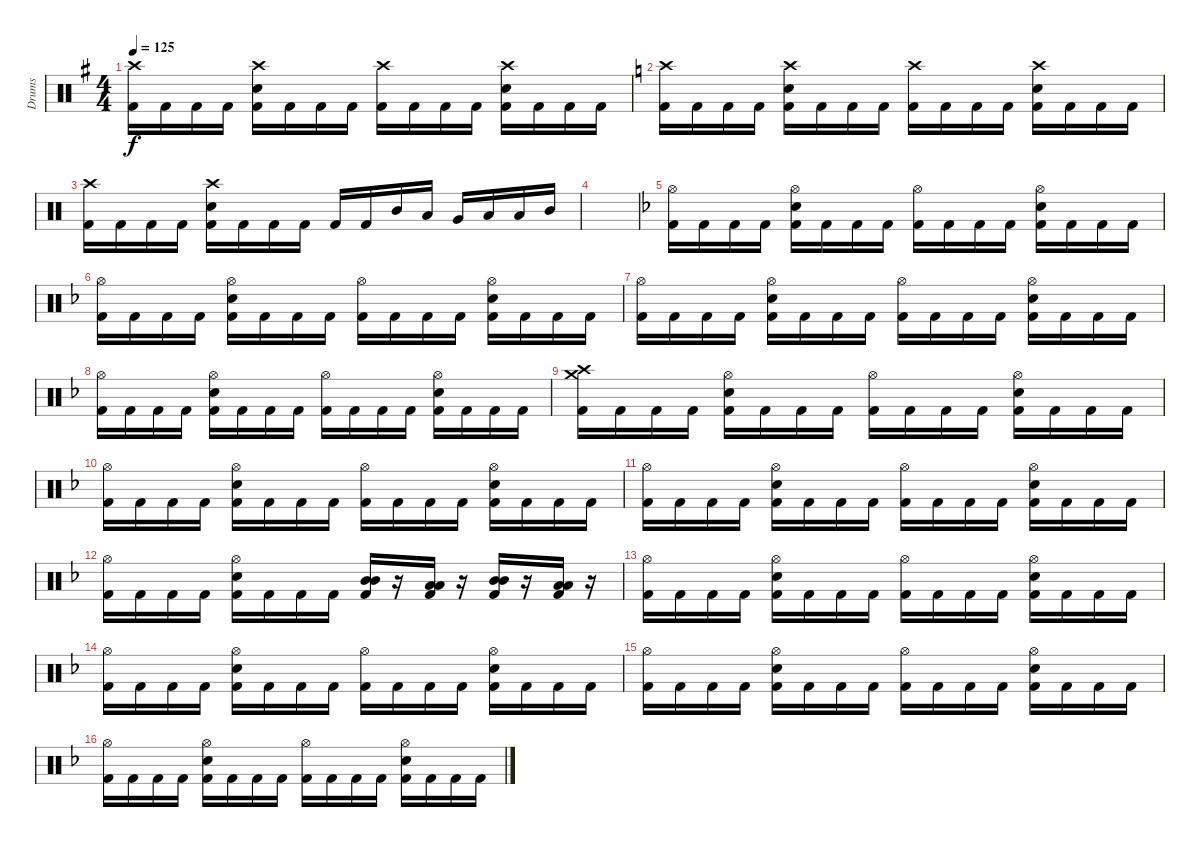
\track ("Drums" "Drums") {instrument percussion}
\staff {score}
\articulation defaults
\ts (4 4)
\tempo 125
\clef neutral
\ks g
("Crash high (hit)" "Kick (hit) 2").16{dy f} "Kick (hit) 2".16 "Kick (hit) 2".16 "Kick (hit) 2".16 ("Crash high (hit)" "Snare (hit) 2" "Kick (hit) 2").16 "Kick (hit) 2".16 "Kick (hit) 2".16 "Kick (hit) 2".16 ("Crash high (hit)" "Kick (hit) 2").16 "Kick (hit) 2".16 "Kick (hit) 2".16 "Kick (hit) 2".16 ("Crash high (hit)" "Snare (hit) 2" "Kick (hit) 2").16 "Kick (hit) 2".16 "Kick (hit) 2".16 "Kick (hit) 2".16 |
\ks c
("Crash high (hit)" "Kick (hit) 2").16 "Kick (hit) 2".16 "Kick (hit) 2".16 "Kick (hit) 2".16 ("Crash high (hit)" "Snare (hit) 2" "Kick (hit) 2").16 "Kick (hit) 2".16 "Kick (hit) 2".16 "Kick (hit) 2".16 ("Crash high (hit)" "Kick (hit) 2").16 "Kick (hit) 2".16 "Kick (hit) 2".16 "Kick (hit) 2".16 ("Crash high (hit)" "Snare (hit) 2" "Kick (hit) 2").16 "Kick (hit) 2".16 "Kick (hit) 2".16 "Kick (hit) 2".16 |
("Crash high (hit)" "Kick (hit) 2").16 "Kick (hit) 2".16 "Kick (hit) 2".16 "Kick (hit) 2".16 ("Crash high (hit)" "Snare (hit) 2" "Kick (hit) 2").16 "Kick (hit) 2".16 "Kick (hit) 2".16 "Kick (hit) 2".16 "Kick (hit) 2".16 "Kick (hit) 2".16 "Mid Tom (hit)".16 "Low Tom (hit)".16 "Very Low Tom (hit)".16 "Low Tom (hit)".16 "Low Tom (hit)".16 "Mid Tom (hit)".16 |
|
\ks f
("Hi-Hat (open)" "Kick (hit) 2").16 "Kick (hit) 2".16 "Kick (hit) 2".16 "Kick (hit) 2".16 ("Hi-Hat (open)" "Snare (hit) 2" "Kick (hit) 2").16 "Kick (hit) 2".16 "Kick (hit) 2".16 "Kick (hit) 2".16 ("Hi-Hat (open)" "Kick (hit) 2").16 "Kick (hit) 2".16 "Kick (hit) 2".16 "Kick (hit) 2".16 ("Hi-Hat (open)" "Snare (hit) 2" "Kick (hit) 2").16 "Kick (hit) 2".16 "Kick (hit) 2".16 "Kick (hit) 2".16 |
("Hi-Hat (open)" "Kick (hit) 2").16 "Kick (hit) 2".16 "Kick (hit) 2".16 "Kick (hit) 2".16 ("Hi-Hat (open)" "Snare (hit) 2" "Kick (hit) 2").16 "Kick (hit) 2".16 "Kick (hit) 2".16 "Kick (hit) 2".16 ("Hi-Hat (open)" "Kick (hit) 2").16 "Kick (hit) 2".16 "Kick (hit) 2".16 "Kick (hit) 2".16 ("Hi-Hat (open)" "Snare (hit) 2" "Kick (hit) 2").16 "Kick (hit) 2".16 "Kick (hit) 2".16 "Kick (hit) 2".16 |
("Hi-Hat (open)" "Kick (hit) 2").16 "Kick (hit) 2".16 "Kick (hit) 2".16 "Kick (hit) 2".16 ("Hi-Hat (open)" "Snare (hit) 2" "Kick (hit) 2").16 "Kick (hit) 2".16 "Kick (hit) 2".16 "Kick (hit) 2".16 ("Hi-Hat (open)" "Kick (hit) 2").16 "Kick (hit) 2".16 "Kick (hit) 2".16 "Kick (hit) 2".16 ("Hi-Hat (open)" "Snare (hit) 2" "Kick (hit) 2").16 "Kick (hit) 2".16 "Kick (hit) 2".16 "Kick (hit) 2".16 |
("Hi-Hat (open)" "Kick (hit) 2").16 "Kick (hit) 2".16 "Kick (hit) 2".16 "Kick (hit) 2".16 ("Hi-Hat (open)" "Snare (hit) 2" "Kick (hit) 2").16 "Kick (hit) 2".16 "Kick (hit) 2".16 "Kick (hit) 2".16 ("Hi-Hat (open)" "Kick (hit) 2").16 "Kick (hit) 2".16 "Kick (hit) 2".16 "Kick (hit) 2".16 ("Hi-Hat (open)" "Snare (hit) 2" "Kick (hit) 2").16 "Kick (hit) 2".16 "Kick (hit) 2".16 "Kick (hit) 2".16 |
("Crash medium (hit)" "Crash high (hit)" "Kick (hit) 2").16 "Kick (hit) 2".16 "Kick (hit) 2".16 "Kick (hit) 2".16 ("Hi-Hat (open)" "Snare (hit) 2" "Kick (hit) 2").16 "Kick (hit) 2".16 "Kick (hit) 2".16 "Kick (hit) 2".16 ("Hi-Hat (open)" "Kick (hit) 2").16 "Kick (hit) 2".16 "Kick (hit) 2".16 "Kick (hit) 2".16 ("Hi-Hat (open)" "Snare (hit) 2" "Kick (hit) 2").16 "Kick (hit) 2".16 "Kick (hit) 2".16 "Kick (hit) 2".16 |
("Hi-Hat (open)" "Kick (hit) 2").16 "Kick (hit) 2".16 "Kick (hit) 2".16 "Kick (hit) 2".16 ("Hi-Hat (open)" "Snare (hit) 2" "Kick (hit) 2").16 "Kick (hit) 2".16 "Kick (hit) 2".16 "Kick (hit) 2".16 ("Hi-Hat (open)" "Kick (hit) 2").16 "Kick (hit) 2".16 "Kick (hit) 2".16 "Kick (hit) 2".16 ("Hi-Hat (open)" "Snare (hit) 2" "Kick (hit) 2").16 "Kick (hit) 2".16 "Kick (hit) 2".16 "Kick (hit) 2".16 |
("Hi-Hat (open)" "Kick (hit) 2").16 "Kick (hit) 2".16 "Kick (hit) 2".16 "Kick (hit) 2".16 ("Hi-Hat (open)" "Snare (hit) 2" "Kick (hit) 2").16 "Kick (hit) 2".16 "Kick (hit) 2".16 "Kick (hit) 2".16 ("Hi-Hat (open)" "Kick (hit) 2").16 "Kick (hit) 2".16 "Kick (hit) 2".16 "Kick (hit) 2".16 ("Hi-Hat (open)" "Snare (hit) 2" "Kick (hit) 2").16 "Kick (hit) 2".16 "Kick (hit) 2".16 "Kick (hit) 2".16 |
("Hi-Hat (open)" "Kick (hit) 2").16 "Kick (hit) 2".16 "Kick (hit) 2".16 "Kick (hit) 2".16 ("Hi-Hat (open)" "Snare (hit) 2" "Kick (hit) 2").16 "Kick (hit) 2".16 "Kick (hit) 2".16 "Kick (hit) 2".16 ("Mid Tom (hit)" "Mid Tom (hit)" "Kick (hit) 2").16 r.16 ("Low Tom (hit)" "Low Tom (hit)" "Kick (hit) 2").16 r.16 ("Mid Tom (hit)" "Mid Tom (hit)" "Kick (hit) 2").16 r.16 ("Low Tom (hit)" "Low Tom (hit)" "Kick (hit) 2").16 r.16 |
("Hi-Hat (open)" "Kick (hit) 2").16 "Kick (hit) 2".16 "Kick (hit) 2".16 "Kick (hit) 2".16 ("Hi-Hat (open)" "Snare (hit) 2" "Kick (hit) 2").16 "Kick (hit) 2".16 "Kick (hit) 2".16 "Kick (hit) 2".16 ("Hi-Hat (open)" "Kick (hit) 2").16 "Kick (hit) 2".16 "Kick (hit) 2".16 "Kick (hit) 2".16 ("Hi-Hat (open)" "Snare (hit) 2" "Kick (hit) 2").16 "Kick (hit) 2".16 "Kick (hit) 2".16 "Kick (hit) 2".16 |
("Hi-Hat (open)" "Kick (hit) 2").16 "Kick (hit) 2".16 "Kick (hit) 2".16 "Kick (hit) 2".16 ("Hi-Hat (open)" "Snare (hit) 2" "Kick (hit) 2").16 "Kick (hit) 2".16 "Kick (hit) 2".16 "Kick (hit) 2".16 ("Hi-Hat (open)" "Kick (hit) 2").16 "Kick (hit) 2".16 "Kick (hit) 2".16 "Kick (hit) 2".16 ("Hi-Hat (open)" "Snare (hit) 2" "Kick (hit) 2").16 "Kick (hit) 2".16 "Kick (hit) 2".16 "Kick (hit) 2".16 |
("Hi-Hat (open)" "Kick (hit) 2").16 "Kick (hit) 2".16 "Kick (hit) 2".16 "Kick (hit) 2".16 ("Hi-Hat (open)" "Snare (hit) 2" "Kick (hit) 2").16 "Kick (hit) 2".16 "Kick (hit) 2".16 "Kick (hit) 2".16 ("Hi-Hat (open)" "Kick (hit) 2").16 "Kick (hit) 2".16 "Kick (hit) 2".16 "Kick (hit) 2".16 ("Hi-Hat (open)" "Snare (hit) 2" "Kick (hit) 2").16 "Kick (hit) 2".16 "Kick (hit) 2".16 "Kick (hit) 2".16 |
("Hi-Hat (open)" "Kick (hit) 2").16 "Kick (hit) 2".16 "Kick (hit) 2".16 "Kick (hit) 2".16 ("Hi-Hat (open)" "Snare (hit) 2" "Kick (hit) 2").16 "Kick (hit) 2".16 "Kick (hit) 2".16 "Kick (hit) 2".16 ("Hi-Hat (open)" "Kick (hit) 2").16 "Kick (hit) 2".16 "Kick (hit) 2".16 "Kick (hit) 2".16 ("Hi-Hat (open)" "Snare (hit) 2" "Kick (hit) 2").16 "Kick (hit) 2".16 "Kick (hit) 2".16 "Kick (hit) 2".16
